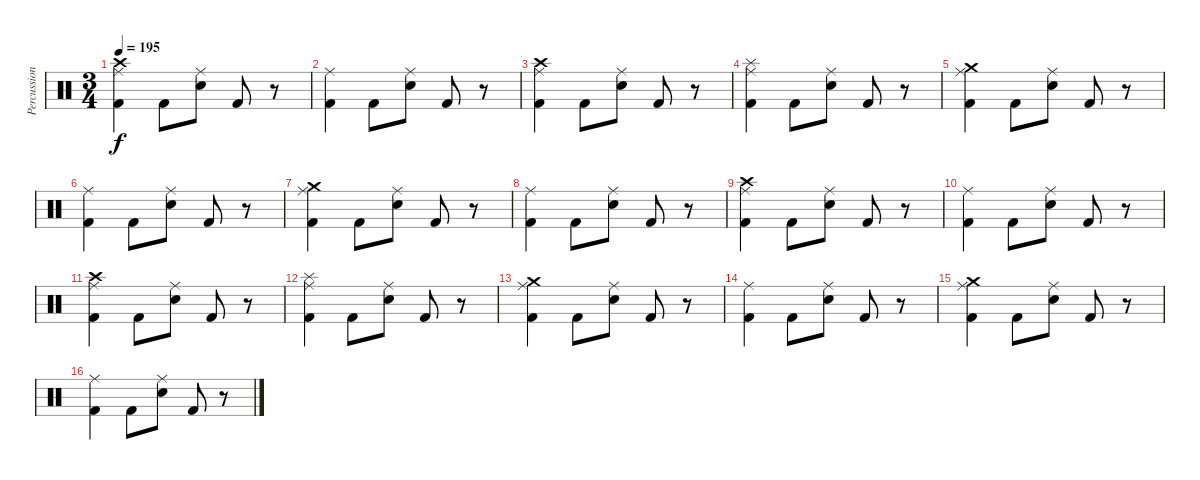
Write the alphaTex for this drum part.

\track ("Percussion" "Percussion") {instrument percussion}
\staff {score}
\articulation defaults
\ts (3 4)
\tempo 195
\clef neutral
\ks c
("Ride (middle)" "Crash high (hit)" "Kick (hit) 2").4{dy f} "Kick (hit) 2".8 ("Ride (middle)" "Snare (hit) 2").8 "Kick (hit) 2".8 r.8 |
("Ride (middle)" "Kick (hit) 2").4 "Kick (hit) 2".8 ("Ride (middle)" "Snare (hit) 2").8 "Kick (hit) 2".8 r.8 |
("Ride (middle)" "Crash high (hit)" "Kick (hit) 2").4 "Kick (hit) 2".8 ("Ride (middle)" "Snare (hit) 2").8 "Kick (hit) 2".8 r.8 |
("Ride (middle)" "Splash (hit)" "Kick (hit) 2").4 "Kick (hit) 2".8 ("Ride (middle)" "Snare (hit) 2").8 "Kick (hit) 2".8 r.8 |
("Ride (middle)" "Crash medium (hit)" "Kick (hit) 2").4 "Kick (hit) 2".8 ("Ride (middle)" "Snare (hit) 2").8 "Kick (hit) 2".8 r.8 |
("Ride (middle)" "Kick (hit) 2").4 "Kick (hit) 2".8 ("Ride (middle)" "Snare (hit) 2").8 "Kick (hit) 2".8 r.8 |
("Ride (middle)" "Crash medium (hit)" "Kick (hit) 2").4 "Kick (hit) 2".8 ("Ride (middle)" "Snare (hit) 2").8 "Kick (hit) 2".8 r.8 |
("Ride (middle)" "Kick (hit) 2").4 "Kick (hit) 2".8 ("Ride (middle)" "Snare (hit) 2").8 "Kick (hit) 2".8 r.8 |
("Ride (middle)" "Crash high (hit)" "Kick (hit) 2").4 "Kick (hit) 2".8 ("Ride (middle)" "Snare (hit) 2").8 "Kick (hit) 2".8 r.8 |
("Ride (middle)" "Kick (hit) 2").4 "Kick (hit) 2".8 ("Ride (middle)" "Snare (hit) 2").8 "Kick (hit) 2".8 r.8 |
("Ride (middle)" "Crash high (hit)" "Kick (hit) 2").4 "Kick (hit) 2".8 ("Ride (middle)" "Snare (hit) 2").8 "Kick (hit) 2".8 r.8 |
("Ride (middle)" "Splash (hit)" "Kick (hit) 2").4 "Kick (hit) 2".8 ("Ride (middle)" "Snare (hit) 2").8 "Kick (hit) 2".8 r.8 |
("Ride (middle)" "Crash medium (hit)" "Kick (hit) 2").4 "Kick (hit) 2".8 ("Ride (middle)" "Snare (hit) 2").8 "Kick (hit) 2".8 r.8 |
("Ride (middle)" "Kick (hit) 2").4 "Kick (hit) 2".8 ("Ride (middle)" "Snare (hit) 2").8 "Kick (hit) 2".8 r.8 |
("Ride (middle)" "Crash medium (hit)" "Kick (hit) 2").4 "Kick (hit) 2".8 ("Ride (middle)" "Snare (hit) 2").8 "Kick (hit) 2".8 r.8 |
("Ride (middle)" "Kick (hit) 2").4 "Kick (hit) 2".8 ("Ride (middle)" "Snare (hit) 2").8 "Kick (hit) 2".8 r.8
